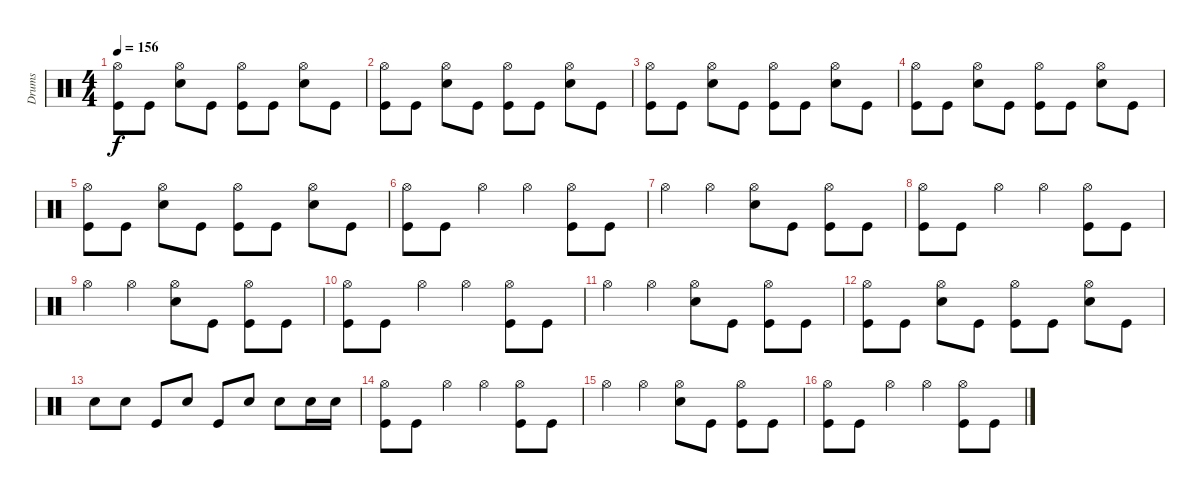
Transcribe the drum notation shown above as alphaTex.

\track ("Drums" "Drums") {instrument percussion}
\staff {score}
\articulation defaults
\ts (4 4)
\tempo 156
\clef neutral
\ks c
("Kick (hit)" "Hi-Hat (open)").8{dy f} "Kick (hit)".8 ("Snare (hit) 2" "Hi-Hat (open)").8 "Kick (hit)".8 ("Kick (hit)" "Hi-Hat (open)").8 "Kick (hit)".8 ("Snare (hit) 2" "Hi-Hat (open)").8 "Kick (hit)".8 |
("Kick (hit)" "Hi-Hat (open)").8 "Kick (hit)".8 ("Snare (hit) 2" "Hi-Hat (open)").8 "Kick (hit)".8 ("Kick (hit)" "Hi-Hat (open)").8 "Kick (hit)".8 ("Snare (hit) 2" "Hi-Hat (open)").8 "Kick (hit)".8 |
("Kick (hit)" "Hi-Hat (open)").8 "Kick (hit)".8 ("Snare (hit) 2" "Hi-Hat (open)").8 "Kick (hit)".8 ("Kick (hit)" "Hi-Hat (open)").8 "Kick (hit)".8 ("Snare (hit) 2" "Hi-Hat (open)").8 "Kick (hit)".8 |
("Kick (hit)" "Hi-Hat (open)").8 "Kick (hit)".8 ("Snare (hit) 2" "Hi-Hat (open)").8 "Kick (hit)".8 ("Kick (hit)" "Hi-Hat (open)").8 "Kick (hit)".8 ("Snare (hit) 2" "Hi-Hat (open)").8 "Kick (hit)".8 |
("Kick (hit)" "Hi-Hat (open)").8 "Kick (hit)".8 ("Snare (hit) 2" "Hi-Hat (open)").8 "Kick (hit)".8 ("Kick (hit)" "Hi-Hat (open)").8 "Kick (hit)".8 ("Snare (hit) 2" "Hi-Hat (open)").8 "Kick (hit)".8 |
("Kick (hit)" "Hi-Hat (open)").8 "Kick (hit)".8 "Hi-Hat (open)".4 "Hi-Hat (open)".4 ("Kick (hit)" "Hi-Hat (open)").8 "Kick (hit)".8 |
"Hi-Hat (open)".4 "Hi-Hat (open)".4 ("Snare (hit) 2" "Hi-Hat (open)").8 "Kick (hit)".8 ("Hi-Hat (open)" "Kick (hit)").8 "Kick (hit)".8 |
("Kick (hit)" "Hi-Hat (open)").8 "Kick (hit)".8 "Hi-Hat (open)".4 "Hi-Hat (open)".4 ("Kick (hit)" "Hi-Hat (open)").8 "Kick (hit)".8 |
"Hi-Hat (open)".4 "Hi-Hat (open)".4 ("Snare (hit) 2" "Hi-Hat (open)").8 "Kick (hit)".8 ("Hi-Hat (open)" "Kick (hit)").8 "Kick (hit)".8 |
("Kick (hit)" "Hi-Hat (open)").8 "Kick (hit)".8 "Hi-Hat (open)".4 "Hi-Hat (open)".4 ("Kick (hit)" "Hi-Hat (open)").8 "Kick (hit)".8 |
"Hi-Hat (open)".4 "Hi-Hat (open)".4 ("Snare (hit) 2" "Hi-Hat (open)").8 "Kick (hit)".8 ("Hi-Hat (open)" "Kick (hit)").8 "Kick (hit)".8 |
("Kick (hit)" "Hi-Hat (open)").8 "Kick (hit)".8 ("Snare (hit) 2" "Hi-Hat (open)").8 "Kick (hit)".8 ("Kick (hit)" "Hi-Hat (open)").8 "Kick (hit)".8 ("Snare (hit) 2" "Hi-Hat (open)").8 "Kick (hit)".8 |
"Snare (hit) 2".8 "Snare (hit) 2".8 "Kick (hit)".8 "Snare (hit) 2".8 "Kick (hit)".8 "Snare (hit) 2".8 "Snare (hit) 2".8 "Snare (hit) 2".16 "Snare (hit) 2".16 |
("Kick (hit)" "Hi-Hat (open)").8 "Kick (hit)".8 "Hi-Hat (open)".4 "Hi-Hat (open)".4 ("Kick (hit)" "Hi-Hat (open)").8 "Kick (hit)".8 |
"Hi-Hat (open)".4 "Hi-Hat (open)".4 ("Snare (hit) 2" "Hi-Hat (open)").8 "Kick (hit)".8 ("Hi-Hat (open)" "Kick (hit)").8 "Kick (hit)".8 |
("Kick (hit)" "Hi-Hat (open)").8 "Kick (hit)".8 "Hi-Hat (open)".4 "Hi-Hat (open)".4 ("Kick (hit)" "Hi-Hat (open)").8 "Kick (hit)".8
